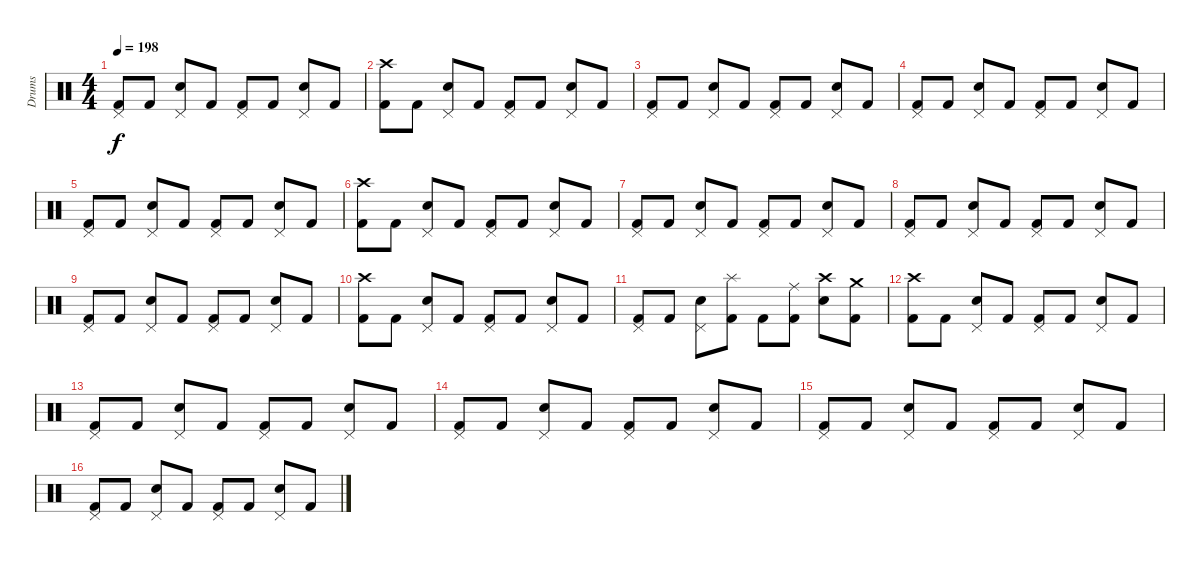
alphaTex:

\track ("Drums" "Drums") {instrument percussion}
\staff {score}
\articulation defaults
\ts (4 4)
\tempo 198
\clef neutral
\ks c
("Pedal Hi-Hat (hit)" "Kick (hit) 2").8{dy f} "Kick (hit) 2".8 ("Pedal Hi-Hat (hit)" "Electric Snare (hit)").8 "Kick (hit) 2".8 ("Pedal Hi-Hat (hit)" "Kick (hit) 2").8 "Kick (hit) 2".8 ("Pedal Hi-Hat (hit)" "Electric Snare (hit)").8 "Kick (hit) 2".8 |
("Crash high (hit)" "Kick (hit) 2").8 "Kick (hit) 2".8 ("Pedal Hi-Hat (hit)" "Electric Snare (hit)").8 "Kick (hit) 2".8 ("Pedal Hi-Hat (hit)" "Kick (hit) 2").8 "Kick (hit) 2".8 ("Pedal Hi-Hat (hit)" "Electric Snare (hit)").8 "Kick (hit) 2".8 |
("Pedal Hi-Hat (hit)" "Kick (hit) 2").8 "Kick (hit) 2".8 ("Pedal Hi-Hat (hit)" "Electric Snare (hit)").8 "Kick (hit) 2".8 ("Pedal Hi-Hat (hit)" "Kick (hit) 2").8 "Kick (hit) 2".8 ("Pedal Hi-Hat (hit)" "Electric Snare (hit)").8 "Kick (hit) 2".8 |
("Pedal Hi-Hat (hit)" "Kick (hit) 2").8 "Kick (hit) 2".8 ("Pedal Hi-Hat (hit)" "Electric Snare (hit)").8 "Kick (hit) 2".8 ("Pedal Hi-Hat (hit)" "Kick (hit) 2").8 "Kick (hit) 2".8 ("Pedal Hi-Hat (hit)" "Electric Snare (hit)").8 "Kick (hit) 2".8 |
("Pedal Hi-Hat (hit)" "Kick (hit) 2").8 "Kick (hit) 2".8 ("Pedal Hi-Hat (hit)" "Electric Snare (hit)").8 "Kick (hit) 2".8 ("Pedal Hi-Hat (hit)" "Kick (hit) 2").8 "Kick (hit) 2".8 ("Pedal Hi-Hat (hit)" "Electric Snare (hit)").8 "Kick (hit) 2".8 |
("Crash high (hit)" "Kick (hit) 2").8 "Kick (hit) 2".8 ("Pedal Hi-Hat (hit)" "Electric Snare (hit)").8 "Kick (hit) 2".8 ("Pedal Hi-Hat (hit)" "Kick (hit) 2").8 "Kick (hit) 2".8 ("Pedal Hi-Hat (hit)" "Electric Snare (hit)").8 "Kick (hit) 2".8 |
("Pedal Hi-Hat (hit)" "Kick (hit) 2").8 "Kick (hit) 2".8 ("Pedal Hi-Hat (hit)" "Electric Snare (hit)").8 "Kick (hit) 2".8 ("Pedal Hi-Hat (hit)" "Kick (hit) 2").8 "Kick (hit) 2".8 ("Pedal Hi-Hat (hit)" "Electric Snare (hit)").8 "Kick (hit) 2".8 |
("Pedal Hi-Hat (hit)" "Kick (hit) 2").8 "Kick (hit) 2".8 ("Pedal Hi-Hat (hit)" "Electric Snare (hit)").8 "Kick (hit) 2".8 ("Pedal Hi-Hat (hit)" "Kick (hit) 2").8 "Kick (hit) 2".8 ("Pedal Hi-Hat (hit)" "Electric Snare (hit)").8 "Kick (hit) 2".8 |
("Pedal Hi-Hat (hit)" "Kick (hit) 2").8 "Kick (hit) 2".8 ("Pedal Hi-Hat (hit)" "Electric Snare (hit)").8 "Kick (hit) 2".8 ("Pedal Hi-Hat (hit)" "Kick (hit) 2").8 "Kick (hit) 2".8 ("Pedal Hi-Hat (hit)" "Electric Snare (hit)").8 "Kick (hit) 2".8 |
("Crash high (hit)" "Kick (hit) 2").8 "Kick (hit) 2".8 ("Pedal Hi-Hat (hit)" "Electric Snare (hit)").8 "Kick (hit) 2".8 ("Pedal Hi-Hat (hit)" "Kick (hit) 2").8 "Kick (hit) 2".8 ("Pedal Hi-Hat (hit)" "Electric Snare (hit)").8 "Kick (hit) 2".8 |
("Pedal Hi-Hat (hit)" "Kick (hit) 2").8 "Kick (hit) 2".8 ("Pedal Hi-Hat (hit)" "Electric Snare (hit)").8 ("Splash (hit)" "Kick (hit) 2").8 "Kick (hit) 2".8 ("Ride (middle)" "Kick (hit) 2").8 ("Crash high (hit)" "Electric Snare (hit)").8 ("Crash medium (hit)" "Kick (hit) 2").8 |
("Crash high (hit)" "Kick (hit) 2").8 "Kick (hit) 2".8 ("Pedal Hi-Hat (hit)" "Electric Snare (hit)").8 "Kick (hit) 2".8 ("Pedal Hi-Hat (hit)" "Kick (hit) 2").8 "Kick (hit) 2".8 ("Pedal Hi-Hat (hit)" "Electric Snare (hit)").8 "Kick (hit) 2".8 |
("Pedal Hi-Hat (hit)" "Kick (hit) 2").8 "Kick (hit) 2".8 ("Pedal Hi-Hat (hit)" "Electric Snare (hit)").8 "Kick (hit) 2".8 ("Pedal Hi-Hat (hit)" "Kick (hit) 2").8 "Kick (hit) 2".8 ("Pedal Hi-Hat (hit)" "Electric Snare (hit)").8 "Kick (hit) 2".8 |
("Pedal Hi-Hat (hit)" "Kick (hit) 2").8 "Kick (hit) 2".8 ("Pedal Hi-Hat (hit)" "Electric Snare (hit)").8 "Kick (hit) 2".8 ("Pedal Hi-Hat (hit)" "Kick (hit) 2").8 "Kick (hit) 2".8 ("Pedal Hi-Hat (hit)" "Electric Snare (hit)").8 "Kick (hit) 2".8 |
("Pedal Hi-Hat (hit)" "Kick (hit) 2").8 "Kick (hit) 2".8 ("Pedal Hi-Hat (hit)" "Electric Snare (hit)").8 "Kick (hit) 2".8 ("Pedal Hi-Hat (hit)" "Kick (hit) 2").8 "Kick (hit) 2".8 ("Pedal Hi-Hat (hit)" "Electric Snare (hit)").8 "Kick (hit) 2".8 |
("Pedal Hi-Hat (hit)" "Kick (hit) 2").8 "Kick (hit) 2".8 ("Pedal Hi-Hat (hit)" "Electric Snare (hit)").8 "Kick (hit) 2".8 ("Pedal Hi-Hat (hit)" "Kick (hit) 2").8 "Kick (hit) 2".8 ("Pedal Hi-Hat (hit)" "Electric Snare (hit)").8 "Kick (hit) 2".8
